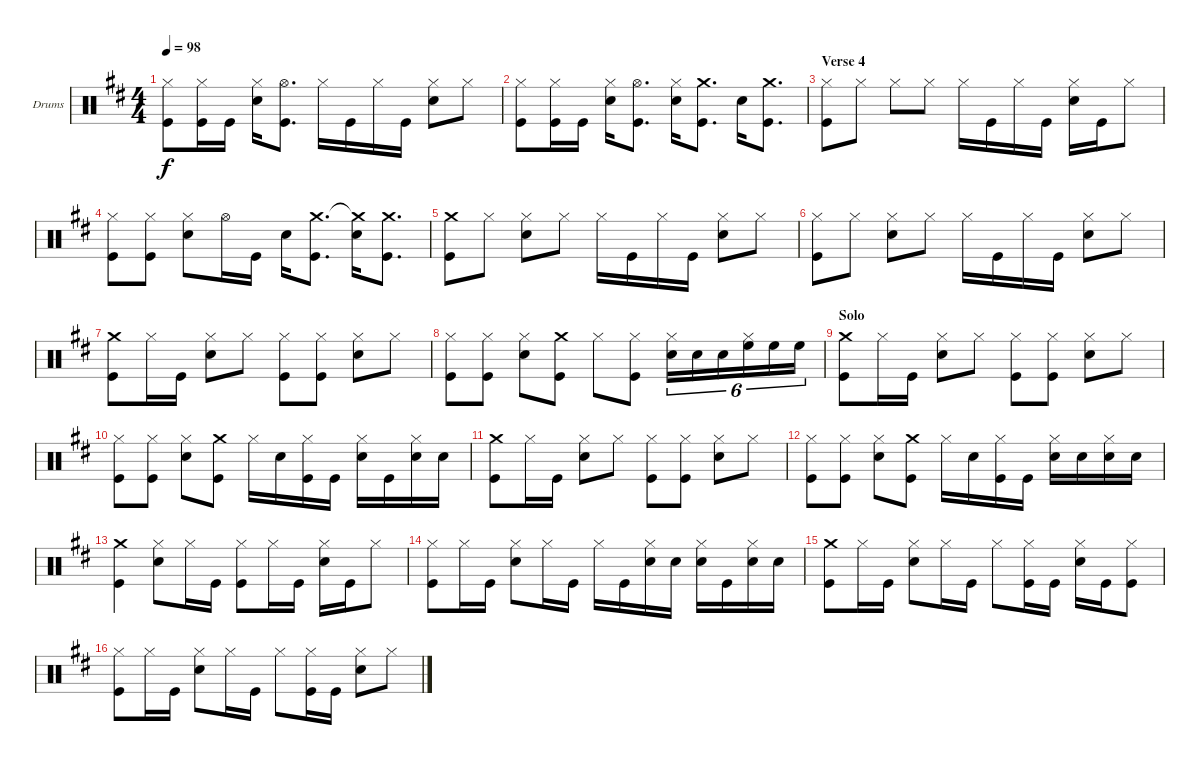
\bracketExtendMode groupsimilarinstruments
\firstSystemTrackNameOrientation horizontal
\otherSystemsTrackNameOrientation horizontal
\track ("Drumkit" "Drums") {instrument percussion}
\staff {score}
\articulation defaults
\ts (4 4)
\tempo 98
\clef neutral
\ks d
("Hi-Hat (closed)" "Kick (hit)").8{dy f} ("Hi-Hat (closed)" "Kick (hit)").16 "Kick (hit)".16 ("Hi-Hat (closed)" "Snare (hit) 2").16 ("Hi-Hat (open)" "Kick (hit)").8{d} "Hi-Hat (closed)".16 "Kick (hit)".16 "Hi-Hat (closed)".16 "Kick (hit)".16 ("Hi-Hat (closed)" "Snare (hit) 2").8 "Hi-Hat (closed)".8 |
("Hi-Hat (closed)" "Kick (hit)").8 ("Hi-Hat (closed)" "Kick (hit)").16 "Kick (hit)".16 ("Hi-Hat (closed)" "Snare (hit) 2").16 ("Hi-Hat (open)" "Kick (hit)").8{d} ("Hi-Hat (closed)" "Snare (hit) 2").16 ("Crash medium (hit)" "Kick (hit)").8{d} "Snare (hit) 2".16 ("Crash medium (hit)" "Kick (hit)").8{d} |
\section ("" "Verse 4")
("Hi-Hat (closed)" "Kick (hit)").8 "Hi-Hat (closed)".8 "Hi-Hat (closed)".8 "Hi-Hat (closed)".8 "Hi-Hat (closed)".16 "Kick (hit)".16 "Hi-Hat (closed)".16 "Kick (hit)".16 ("Hi-Hat (closed)" "Snare (hit) 2").16 "Kick (hit)".16 "Hi-Hat (closed)".8 |
("Hi-Hat (closed)" "Kick (hit)").8 ("Hi-Hat (closed)" "Kick (hit)").8 ("Hi-Hat (closed)" "Snare (hit) 2").8 "Hi-Hat (open)".16 "Kick (hit)".16 "Snare (hit) 2".16 ("Crash medium (hit)" "Kick (hit)").8{d} ("Crash medium (hit)"{t} "Snare (hit) 2").16 ("Crash medium (hit)" "Kick (hit)").8{d} |
("Crash medium (hit)" "Kick (hit)").8 "Hi-Hat (closed)".8 ("Hi-Hat (closed)" "Snare (hit) 2").8 "Hi-Hat (closed)".8 "Hi-Hat (closed)".16 "Kick (hit)".16 "Hi-Hat (closed)".16 "Kick (hit)".16 ("Hi-Hat (closed)" "Snare (hit) 2").8 "Hi-Hat (closed)".8 |
("Hi-Hat (closed)" "Kick (hit)").8 "Hi-Hat (closed)".8 ("Hi-Hat (closed)" "Snare (hit) 2").8 "Hi-Hat (closed)".8 "Hi-Hat (closed)".16 "Kick (hit)".16 "Hi-Hat (closed)".16 "Kick (hit)".16 ("Hi-Hat (closed)" "Snare (hit) 2").8 "Hi-Hat (closed)".8 |
("Crash medium (hit)" "Kick (hit)").8 "Hi-Hat (closed)".16 "Kick (hit)".16 ("Hi-Hat (closed)" "Snare (hit) 2").8 "Hi-Hat (closed)".8 ("Hi-Hat (closed)" "Kick (hit)").8 ("Hi-Hat (closed)" "Kick (hit)").8 ("Hi-Hat (closed)" "Snare (hit) 2").8 "Hi-Hat (closed)".8 |
("Hi-Hat (closed)" "Kick (hit)").8 ("Hi-Hat (closed)" "Kick (hit)").8 ("Hi-Hat (closed)" "Snare (hit) 2").8 ("Crash medium (hit)" "Kick (hit)").8 "Hi-Hat (closed)".8 ("Hi-Hat (closed)" "Kick (hit)").8 ("Hi-Hat (closed)" "Snare (hit) 2").16{tu (6 4)} "Snare (hit) 2".16{tu (6 4)} "Snare (hit) 2".16{tu (6 4)} ("Hi-Hat (closed)" "High Floor Tom (hit)").16{tu (6 4)} "High Floor Tom (hit)".16{tu (6 4)} "High Floor Tom (hit)".16{tu (6 4)} |
\section ("" "Solo")
("Crash medium (hit)" "Kick (hit)").8 "Hi-Hat (closed)".16 "Kick (hit)".16 ("Hi-Hat (closed)" "Snare (hit) 2").8 "Hi-Hat (closed)".8 ("Hi-Hat (closed)" "Kick (hit)").8 ("Hi-Hat (closed)" "Kick (hit)").8 ("Hi-Hat (closed)" "Snare (hit) 2").8 "Hi-Hat (closed)".8 |
("Hi-Hat (closed)" "Kick (hit)").8 ("Hi-Hat (closed)" "Kick (hit)").8 ("Hi-Hat (closed)" "Snare (hit) 2").8 ("Crash medium (hit)" "Kick (hit)").8 "Hi-Hat (closed)".16 "Snare (hit) 2".16 ("Hi-Hat (closed)" "Kick (hit)").16 "Kick (hit)".16 ("Hi-Hat (closed)" "Snare (hit) 2").16 "Kick (hit)".16 ("Hi-Hat (closed)" "Snare (hit) 2").16 "Snare (hit) 2".16 |
("Crash medium (hit)" "Kick (hit)").8 "Hi-Hat (closed)".16 "Kick (hit)".16 ("Hi-Hat (closed)" "Snare (hit) 2").8 "Hi-Hat (closed)".8 ("Hi-Hat (closed)" "Kick (hit)").8 ("Hi-Hat (closed)" "Kick (hit)").8 ("Hi-Hat (closed)" "Snare (hit) 2").8 "Hi-Hat (closed)".8 |
("Hi-Hat (closed)" "Kick (hit)").8 ("Hi-Hat (closed)" "Kick (hit)").8 ("Hi-Hat (closed)" "Snare (hit) 2").8 ("Crash medium (hit)" "Kick (hit)").8 "Hi-Hat (closed)".16 "Snare (hit) 2".16 ("Hi-Hat (closed)" "Kick (hit)").16 "Kick (hit)".16 ("Hi-Hat (closed)" "Snare (hit) 2").16 "Snare (hit) 2".16 ("Hi-Hat (closed)" "Snare (hit) 2").16 "Snare (hit) 2".16 |
("Crash medium (hit)" "Kick (hit)").4 ("Hi-Hat (closed)" "Snare (hit) 2").8 "Hi-Hat (closed)".16 "Kick (hit)".16 ("Hi-Hat (closed)" "Kick (hit)").8 "Hi-Hat (closed)".16 "Kick (hit)".16 ("Hi-Hat (closed)" "Snare (hit) 2").16 "Kick (hit)".16 "Hi-Hat (closed)".8 |
("Hi-Hat (closed)" "Kick (hit)").8 "Hi-Hat (closed)".16 "Kick (hit)".16 ("Hi-Hat (closed)" "Snare (hit) 2").8 "Hi-Hat (closed)".16 "Kick (hit)".16 "Hi-Hat (closed)".16 "Kick (hit)".16 ("Hi-Hat (closed)" "Snare (hit) 2").16 "Snare (hit) 2".16 ("Hi-Hat (closed)" "Snare (hit) 2").16 "Kick (hit)".16 ("Hi-Hat (closed)" "Snare (hit) 2").16 "Snare (hit) 2".16 |
("Crash medium (hit)" "Kick (hit)").8 "Hi-Hat (closed)".16 "Kick (hit)".16 ("Hi-Hat (closed)" "Snare (hit) 2").8 "Hi-Hat (closed)".16 "Kick (hit)".16 "Hi-Hat (closed)".8 ("Hi-Hat (closed)" "Kick (hit)").16 "Kick (hit)".16 ("Hi-Hat (closed)" "Snare (hit) 2").16 "Kick (hit)".16 ("Hi-Hat (closed)" "Kick (hit)").8 |
("Hi-Hat (closed)" "Kick (hit)").8 "Hi-Hat (closed)".16 "Kick (hit)".16 ("Hi-Hat (closed)" "Snare (hit) 2").8 "Hi-Hat (closed)".16 "Kick (hit)".16 "Hi-Hat (closed)".8 ("Hi-Hat (closed)" "Kick (hit)").16 "Kick (hit)".16 ("Hi-Hat (closed)" "Snare (hit) 2").8 "Hi-Hat (closed)".8
